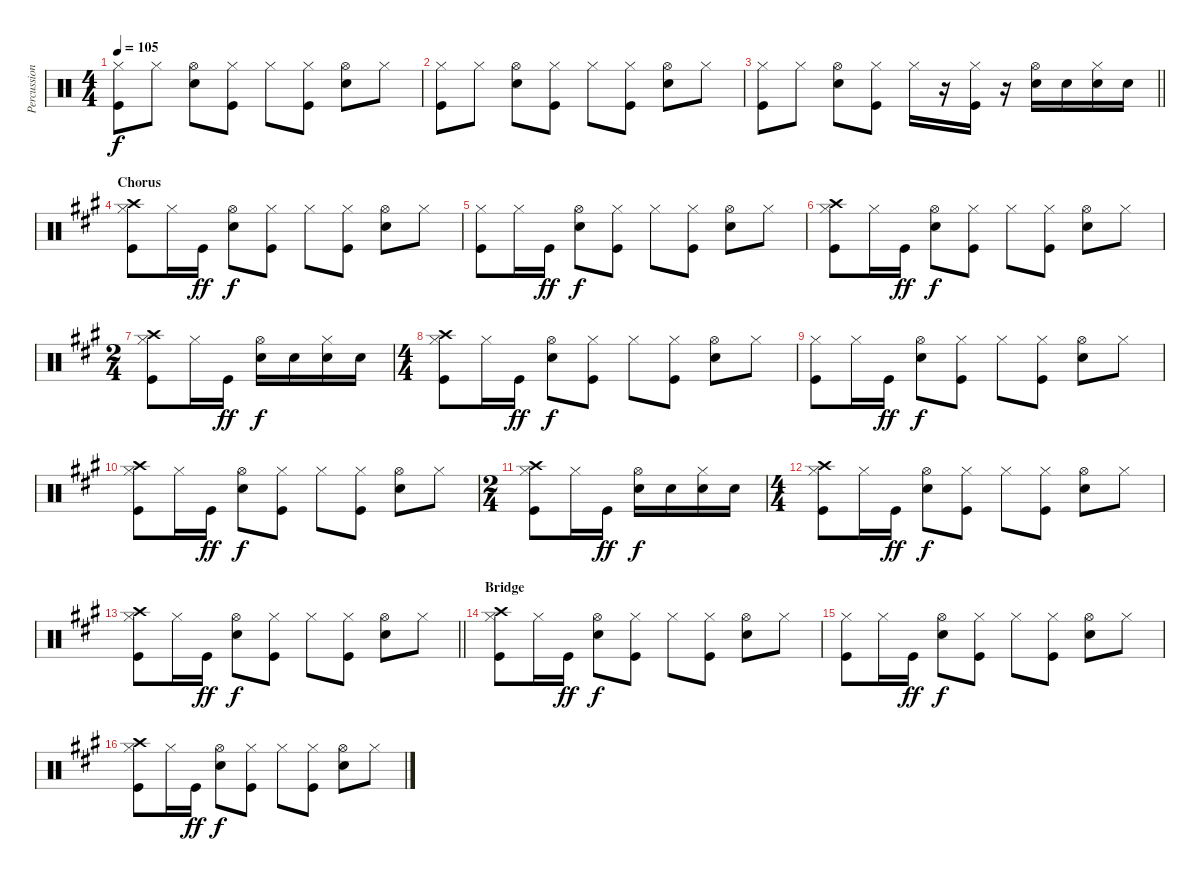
\track ("Percussion" "Percussion") {instrument percussion}
\staff {score}
\articulation defaults
\ts (4 4)
\tempo 105
\clef neutral
\ks c
("Hi-Hat (closed)" "Kick (hit)").8{dy f} "Hi-Hat (closed)".8 ("Hi-Hat (open)" "Snare (hit) 2").8 ("Hi-Hat (closed)" "Kick (hit)").8 "Hi-Hat (closed)".8 ("Hi-Hat (closed)" "Kick (hit)").8 ("Hi-Hat (open)" "Snare (hit) 2").8 "Hi-Hat (closed)".8 |
("Hi-Hat (closed)" "Kick (hit)").8 "Hi-Hat (closed)".8 ("Hi-Hat (open)" "Snare (hit) 2").8 ("Hi-Hat (closed)" "Kick (hit)").8 "Hi-Hat (closed)".8 ("Hi-Hat (closed)" "Kick (hit)").8 ("Hi-Hat (open)" "Snare (hit) 2").8 "Hi-Hat (closed)".8 |
\barLineRight lightlight
("Hi-Hat (closed)" "Kick (hit)").8 "Hi-Hat (closed)".8 ("Hi-Hat (open)" "Snare (hit) 2").8 ("Hi-Hat (closed)" "Kick (hit)").8 "Hi-Hat (closed)".16 r.16 ("Hi-Hat (closed)" "Kick (hit)").16 r.16 ("Hi-Hat (open)" "Snare (hit) 2").16 "Snare (hit) 2".16 ("Hi-Hat (closed)" "Snare (hit) 2").16 "Snare (hit) 2".16 |
\section ("" "Chorus")
\ks a
("Hi-Hat (closed)" "Crash high (hit)" "Kick (hit)").8 "Hi-Hat (closed)".16 "Kick (hit)".16{dy ff} ("Hi-Hat (open)" "Snare (hit) 2").8{dy f} ("Hi-Hat (closed)" "Kick (hit)").8 "Hi-Hat (closed)".8 ("Hi-Hat (closed)" "Kick (hit)").8 ("Hi-Hat (open)" "Snare (hit) 2").8 "Hi-Hat (closed)".8 |
("Hi-Hat (closed)" "Kick (hit)").8 "Hi-Hat (closed)".16 "Kick (hit)".16{dy ff} ("Hi-Hat (open)" "Snare (hit) 2").8{dy f} ("Hi-Hat (closed)" "Kick (hit)").8 "Hi-Hat (closed)".8 ("Hi-Hat (closed)" "Kick (hit)").8 ("Hi-Hat (open)" "Snare (hit) 2").8 "Hi-Hat (closed)".8 |
("Hi-Hat (closed)" "Crash high (hit)" "Kick (hit)").8 "Hi-Hat (closed)".16 "Kick (hit)".16{dy ff} ("Hi-Hat (open)" "Snare (hit) 2").8{dy f} ("Hi-Hat (closed)" "Kick (hit)").8 "Hi-Hat (closed)".8 ("Hi-Hat (closed)" "Kick (hit)").8 ("Hi-Hat (open)" "Snare (hit) 2").8 "Hi-Hat (closed)".8 |
\ts (2 4)
("Hi-Hat (closed)" "Crash high (hit)" "Kick (hit)").8 "Hi-Hat (closed)".16 "Kick (hit)".16{dy ff} ("Hi-Hat (open)" "Snare (hit) 2").16{dy f} "Snare (hit) 2".16 ("Hi-Hat (closed)" "Snare (hit) 2").16 "Snare (hit) 2".16 |
\ts (4 4)
("Hi-Hat (closed)" "Crash high (hit)" "Kick (hit)").8 "Hi-Hat (closed)".16 "Kick (hit)".16{dy ff} ("Hi-Hat (open)" "Snare (hit) 2").8{dy f} ("Hi-Hat (closed)" "Kick (hit)").8 "Hi-Hat (closed)".8 ("Hi-Hat (closed)" "Kick (hit)").8 ("Hi-Hat (open)" "Snare (hit) 2").8 "Hi-Hat (closed)".8 |
("Hi-Hat (closed)" "Kick (hit)").8 "Hi-Hat (closed)".16 "Kick (hit)".16{dy ff} ("Hi-Hat (open)" "Snare (hit) 2").8{dy f} ("Hi-Hat (closed)" "Kick (hit)").8 "Hi-Hat (closed)".8 ("Hi-Hat (closed)" "Kick (hit)").8 ("Hi-Hat (open)" "Snare (hit) 2").8 "Hi-Hat (closed)".8 |
("Hi-Hat (closed)" "Crash high (hit)" "Kick (hit)").8 "Hi-Hat (closed)".16 "Kick (hit)".16{dy ff} ("Hi-Hat (open)" "Snare (hit) 2").8{dy f} ("Hi-Hat (closed)" "Kick (hit)").8 "Hi-Hat (closed)".8 ("Hi-Hat (closed)" "Kick (hit)").8 ("Hi-Hat (open)" "Snare (hit) 2").8 "Hi-Hat (closed)".8 |
\ts (2 4)
("Hi-Hat (closed)" "Crash high (hit)" "Kick (hit)").8 "Hi-Hat (closed)".16 "Kick (hit)".16{dy ff} ("Hi-Hat (open)" "Snare (hit) 2").16{dy f} "Snare (hit) 2".16 ("Hi-Hat (closed)" "Snare (hit) 2").16 "Snare (hit) 2".16 |
\ts (4 4)
("Hi-Hat (closed)" "Crash high (hit)" "Kick (hit)").8 "Hi-Hat (closed)".16 "Kick (hit)".16{dy ff} ("Hi-Hat (open)" "Snare (hit) 2").8{dy f} ("Hi-Hat (closed)" "Kick (hit)").8 "Hi-Hat (closed)".8 ("Hi-Hat (closed)" "Kick (hit)").8 ("Hi-Hat (open)" "Snare (hit) 2").8 "Hi-Hat (closed)".8 |
\barLineRight lightlight
("Hi-Hat (closed)" "Crash high (hit)" "Kick (hit)").8 "Hi-Hat (closed)".16 "Kick (hit)".16{dy ff} ("Hi-Hat (open)" "Snare (hit) 2").8{dy f} ("Hi-Hat (closed)" "Kick (hit)").8 "Hi-Hat (closed)".8 ("Hi-Hat (closed)" "Kick (hit)").8 ("Hi-Hat (open)" "Snare (hit) 2").8 "Hi-Hat (closed)".8 |
\section ("" "Bridge")
("Hi-Hat (closed)" "Crash high (hit)" "Kick (hit)").8 "Hi-Hat (closed)".16 "Kick (hit)".16{dy ff} ("Hi-Hat (open)" "Snare (hit) 2").8{dy f} ("Hi-Hat (closed)" "Kick (hit)").8 "Hi-Hat (closed)".8 ("Hi-Hat (closed)" "Kick (hit)").8 ("Hi-Hat (open)" "Snare (hit) 2").8 "Hi-Hat (closed)".8 |
("Hi-Hat (closed)" "Kick (hit)").8 "Hi-Hat (closed)".16 "Kick (hit)".16{dy ff} ("Hi-Hat (open)" "Snare (hit) 2").8{dy f} ("Hi-Hat (closed)" "Kick (hit)").8 "Hi-Hat (closed)".8 ("Hi-Hat (closed)" "Kick (hit)").8 ("Hi-Hat (open)" "Snare (hit) 2").8 "Hi-Hat (closed)".8 |
("Hi-Hat (closed)" "Crash high (hit)" "Kick (hit)").8 "Hi-Hat (closed)".16 "Kick (hit)".16{dy ff} ("Hi-Hat (open)" "Snare (hit) 2").8{dy f} ("Hi-Hat (closed)" "Kick (hit)").8 "Hi-Hat (closed)".8 ("Hi-Hat (closed)" "Kick (hit)").8 ("Hi-Hat (open)" "Snare (hit) 2").8 "Hi-Hat (closed)".8
